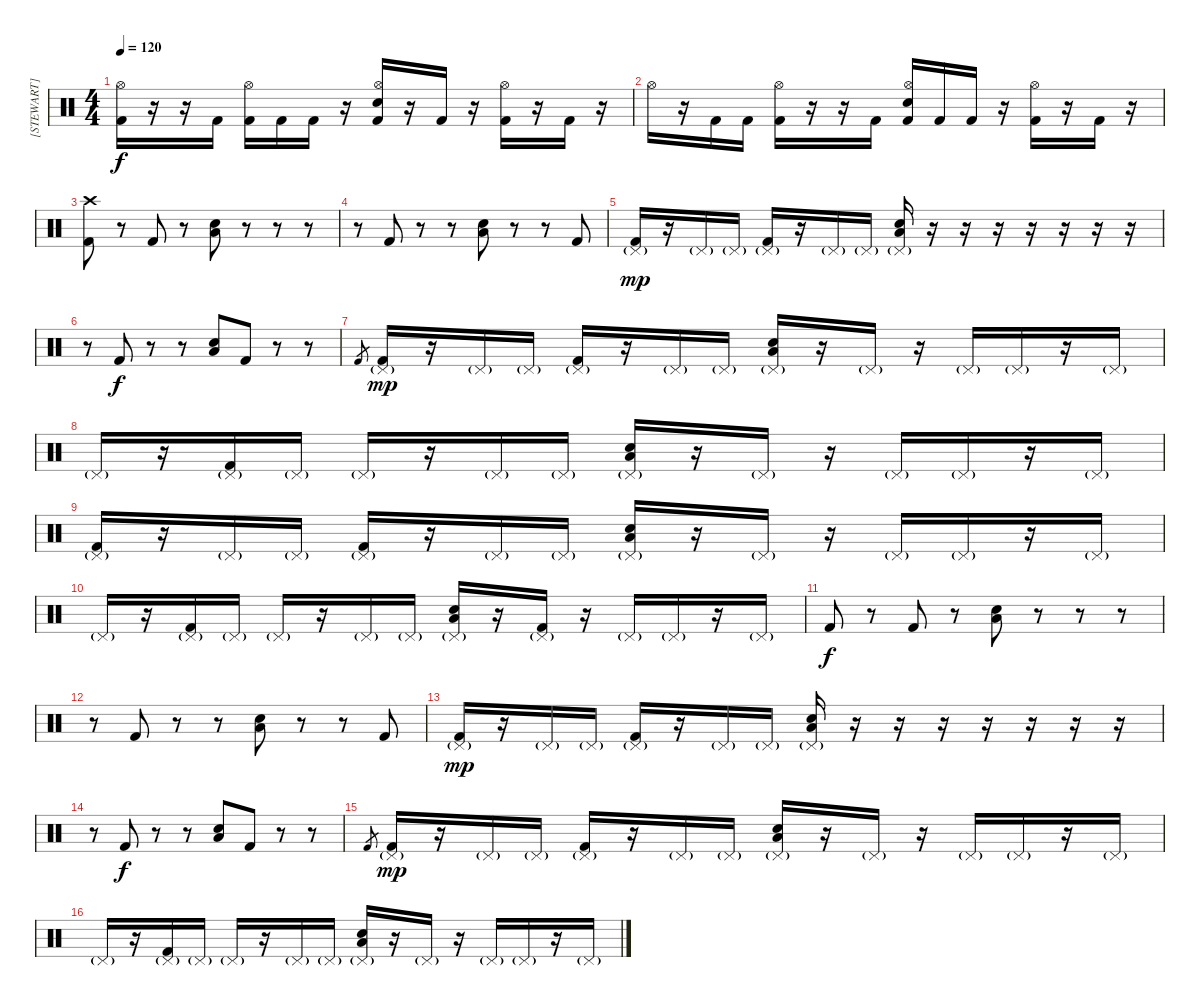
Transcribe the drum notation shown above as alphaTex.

\track ("[STEWART]" "[STEWART]") {instrument percussion}
\staff {score}
\articulation defaults
\ts (4 4)
\tempo 120
\clef neutral
\ks c
("Kick (hit) 2" "Hi-Hat (open)").16{dy f} r.16 r.16 "Kick (hit) 2".16 ("Kick (hit) 2" "Hi-Hat (open)").16 "Kick (hit) 2".16 "Kick (hit) 2".16 r.16 ("Electric Snare (hit)" "Kick (hit) 2" "Hi-Hat (open)").16 r.16 "Kick (hit) 2".16 r.16 ("Kick (hit) 2" "Hi-Hat (open)").16 r.16 "Kick (hit) 2".16 r.16 |
"Hi-Hat (open)".16 r.16 "Kick (hit) 2".16 "Kick (hit) 2".16 ("Kick (hit) 2" "Hi-Hat (open)").16 r.16 r.16 "Kick (hit) 2".16 ("Electric Snare (hit)" "Kick (hit) 2" "Hi-Hat (open)").16 "Kick (hit) 2".16 "Kick (hit) 2".16 r.16 ("Kick (hit) 2" "Hi-Hat (open)").16 r.16 "Kick (hit) 2".16 r.16 |
("Crash high (hit)" "Kick (hit) 2").8 r.8 "Kick (hit) 2".8 r.8 ("Low Tom (hit)" "Electric Snare (hit)").8 r.8 r.8 r.8 |
r.8 "Kick (hit) 2".8 r.8 r.8 ("Low Tom (hit)" "Electric Snare (hit)").8 r.8 r.8 "Kick (hit) 2".8 |
("Pedal Hi-Hat (hit)"{g} "Kick (hit) 2").16{dy mp} r.16 "Pedal Hi-Hat (hit)"{g}.16 "Pedal Hi-Hat (hit)"{g}.16 ("Pedal Hi-Hat (hit)"{g} "Kick (hit) 2").16 r.16 "Pedal Hi-Hat (hit)"{g}.16 "Pedal Hi-Hat (hit)"{g}.16 ("Pedal Hi-Hat (hit)"{g} "Low Tom (hit)" "Electric Snare (hit)").16 r.16 r.16 r.16 r.16 r.16 r.16 r.16 |
r.8 "Kick (hit) 2".8{dy f} r.8 r.8 ("Low Tom (hit)" "Electric Snare (hit)").8 "Kick (hit) 2".8 r.8 r.8 |
"Kick (hit) 2".8{gr} ("Pedal Hi-Hat (hit)"{g} "Kick (hit) 2").16{dy mp} r.16 "Pedal Hi-Hat (hit)"{g}.16 "Pedal Hi-Hat (hit)"{g}.16 ("Pedal Hi-Hat (hit)"{g} "Kick (hit) 2").16 r.16 "Pedal Hi-Hat (hit)"{g}.16 "Pedal Hi-Hat (hit)"{g}.16 ("Pedal Hi-Hat (hit)"{g} "Low Tom (hit)" "Electric Snare (hit)").16 r.16 "Pedal Hi-Hat (hit)"{g}.16 r.16 "Pedal Hi-Hat (hit)"{g}.16 "Pedal Hi-Hat (hit)"{g}.16 r.16 "Pedal Hi-Hat (hit)"{g}.16 |
"Pedal Hi-Hat (hit)"{g}.16 r.16 ("Pedal Hi-Hat (hit)"{g} "Kick (hit) 2").16 "Pedal Hi-Hat (hit)"{g}.16 "Pedal Hi-Hat (hit)"{g}.16 r.16 "Pedal Hi-Hat (hit)"{g}.16 "Pedal Hi-Hat (hit)"{g}.16 ("Pedal Hi-Hat (hit)"{g} "Low Tom (hit)" "Electric Snare (hit)").16 r.16 "Pedal Hi-Hat (hit)"{g}.16 r.16 "Pedal Hi-Hat (hit)"{g}.16 "Pedal Hi-Hat (hit)"{g}.16 r.16 "Pedal Hi-Hat (hit)"{g}.16 |
("Pedal Hi-Hat (hit)"{g} "Kick (hit) 2").16 r.16 "Pedal Hi-Hat (hit)"{g}.16 "Pedal Hi-Hat (hit)"{g}.16 ("Pedal Hi-Hat (hit)"{g} "Kick (hit) 2").16 r.16 "Pedal Hi-Hat (hit)"{g}.16 "Pedal Hi-Hat (hit)"{g}.16 ("Pedal Hi-Hat (hit)"{g} "Low Tom (hit)" "Electric Snare (hit)").16 r.16 "Pedal Hi-Hat (hit)"{g}.16 r.16 "Pedal Hi-Hat (hit)"{g}.16 "Pedal Hi-Hat (hit)"{g}.16 r.16 "Pedal Hi-Hat (hit)"{g}.16 |
"Pedal Hi-Hat (hit)"{g}.16 r.16 ("Pedal Hi-Hat (hit)"{g} "Kick (hit) 2").16 "Pedal Hi-Hat (hit)"{g}.16 "Pedal Hi-Hat (hit)"{g}.16 r.16 "Pedal Hi-Hat (hit)"{g}.16 "Pedal Hi-Hat (hit)"{g}.16 ("Pedal Hi-Hat (hit)"{g} "Low Tom (hit)" "Electric Snare (hit)").16 r.16 ("Pedal Hi-Hat (hit)"{g} "Kick (hit) 2").16 r.16 "Pedal Hi-Hat (hit)"{g}.16 "Pedal Hi-Hat (hit)"{g}.16 r.16 "Pedal Hi-Hat (hit)"{g}.16 |
"Kick (hit) 2".8{dy f} r.8 "Kick (hit) 2".8 r.8 ("Low Tom (hit)" "Electric Snare (hit)").8 r.8 r.8 r.8 |
r.8 "Kick (hit) 2".8 r.8 r.8 ("Low Tom (hit)" "Electric Snare (hit)").8 r.8 r.8 "Kick (hit) 2".8 |
("Pedal Hi-Hat (hit)"{g} "Kick (hit) 2").16{dy mp} r.16 "Pedal Hi-Hat (hit)"{g}.16 "Pedal Hi-Hat (hit)"{g}.16 ("Pedal Hi-Hat (hit)"{g} "Kick (hit) 2").16 r.16 "Pedal Hi-Hat (hit)"{g}.16 "Pedal Hi-Hat (hit)"{g}.16 ("Pedal Hi-Hat (hit)"{g} "Low Tom (hit)" "Electric Snare (hit)").16 r.16 r.16 r.16 r.16 r.16 r.16 r.16 |
r.8 "Kick (hit) 2".8{dy f} r.8 r.8 ("Low Tom (hit)" "Electric Snare (hit)").8 "Kick (hit) 2".8 r.8 r.8 |
"Kick (hit) 2".8{gr} ("Pedal Hi-Hat (hit)"{g} "Kick (hit) 2").16{dy mp} r.16 "Pedal Hi-Hat (hit)"{g}.16 "Pedal Hi-Hat (hit)"{g}.16 ("Pedal Hi-Hat (hit)"{g} "Kick (hit) 2").16 r.16 "Pedal Hi-Hat (hit)"{g}.16 "Pedal Hi-Hat (hit)"{g}.16 ("Pedal Hi-Hat (hit)"{g} "Low Tom (hit)" "Electric Snare (hit)").16 r.16 "Pedal Hi-Hat (hit)"{g}.16 r.16 "Pedal Hi-Hat (hit)"{g}.16 "Pedal Hi-Hat (hit)"{g}.16 r.16 "Pedal Hi-Hat (hit)"{g}.16 |
"Pedal Hi-Hat (hit)"{g}.16 r.16 ("Pedal Hi-Hat (hit)"{g} "Kick (hit) 2").16 "Pedal Hi-Hat (hit)"{g}.16 "Pedal Hi-Hat (hit)"{g}.16 r.16 "Pedal Hi-Hat (hit)"{g}.16 "Pedal Hi-Hat (hit)"{g}.16 ("Pedal Hi-Hat (hit)"{g} "Low Tom (hit)" "Electric Snare (hit)").16 r.16 "Pedal Hi-Hat (hit)"{g}.16 r.16 "Pedal Hi-Hat (hit)"{g}.16 "Pedal Hi-Hat (hit)"{g}.16 r.16 "Pedal Hi-Hat (hit)"{g}.16
